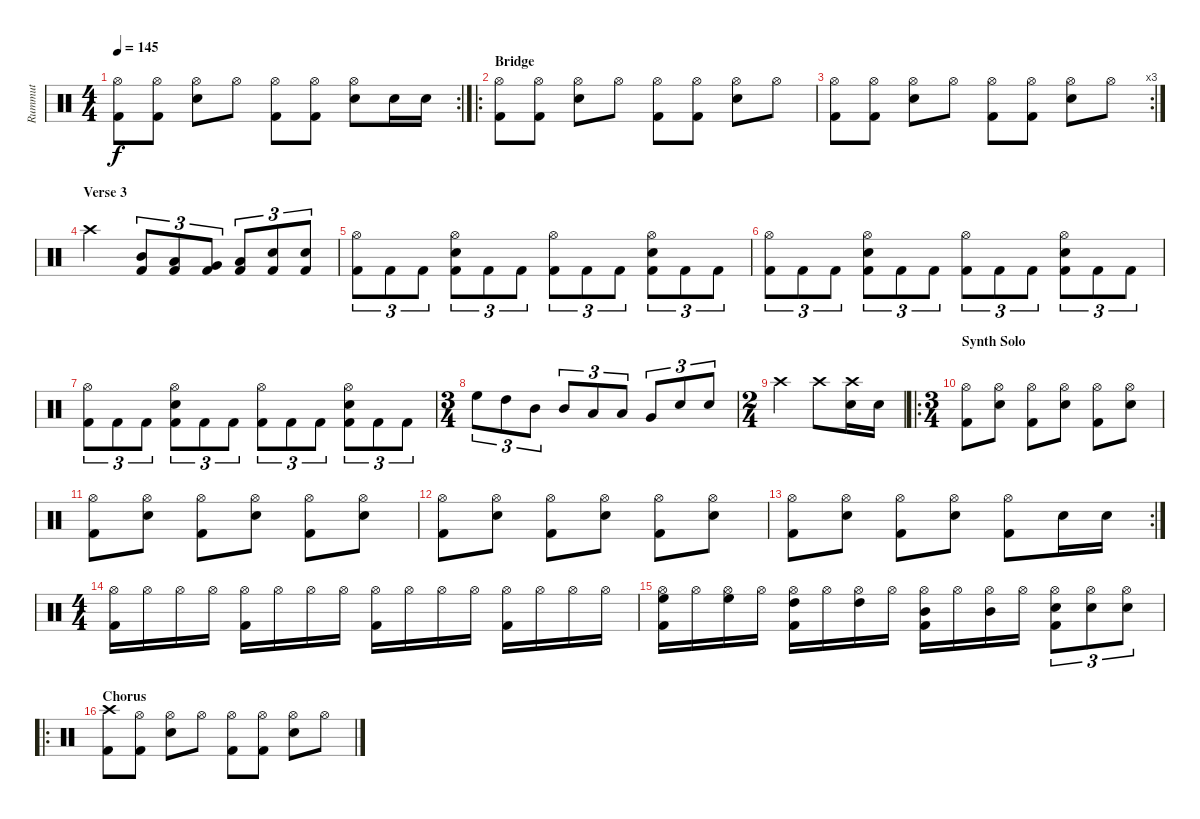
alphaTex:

\track ("Rummut" "Rummut") {instrument percussion}
\staff {score}
\articulation defaults
\rc 2
\ts (4 4)
\tempo 145
\clef neutral
\ks c
("Hi-Hat (open)" "Kick (hit) 2").8{dy f} ("Hi-Hat (open)" "Kick (hit) 2").8 ("Hi-Hat (open)" "Electric Snare (hit)").8 "Hi-Hat (open)".8 ("Hi-Hat (open)" "Kick (hit) 2").8 ("Hi-Hat (open)" "Kick (hit) 2").8 ("Hi-Hat (open)" "Electric Snare (hit)").8 "Electric Snare (hit)".16 "Electric Snare (hit)".16 |
\ro
\section ("" "Bridge")
("Hi-Hat (open)" "Kick (hit) 2").8 ("Hi-Hat (open)" "Kick (hit) 2").8 ("Hi-Hat (open)" "Electric Snare (hit)").8 "Hi-Hat (open)".8 ("Hi-Hat (open)" "Kick (hit) 2").8 ("Hi-Hat (open)" "Kick (hit) 2").8 ("Hi-Hat (open)" "Electric Snare (hit)").8 "Hi-Hat (open)".8 |
\rc 3
("Hi-Hat (open)" "Kick (hit) 2").8 ("Hi-Hat (open)" "Kick (hit) 2").8 ("Hi-Hat (open)" "Electric Snare (hit)").8 "Hi-Hat (open)".8 ("Hi-Hat (open)" "Kick (hit) 2").8 ("Hi-Hat (open)" "Kick (hit) 2").8 ("Hi-Hat (open)" "Electric Snare (hit)").8 "Hi-Hat (open)".8 |
\section ("" "Verse 3")
"Crash high (hit)".2 ("Kick (hit) 2" "Mid Tom (hit)").8{tu (3 2)} ("Kick (hit) 2" "Low Tom (hit)").8{tu (3 2)} ("Kick (hit) 2" "Very Low Tom (hit)").8{tu (3 2)} ("Kick (hit) 2" "Low Floor Tom (hit)").8{tu (3 2)} ("Kick (hit) 2" "Electric Snare (hit)").8{tu (3 2)} ("Kick (hit) 2" "Electric Snare (hit)").8{tu (3 2)} |
("Kick (hit) 2" "Hi-Hat (open)").8{tu (3 2)} "Kick (hit) 2".8{tu (3 2)} "Kick (hit) 2".8{tu (3 2)} ("Kick (hit) 2" "Electric Snare (hit)" "Hi-Hat (open)").8{tu (3 2)} "Kick (hit) 2".8{tu (3 2)} "Kick (hit) 2".8{tu (3 2)} ("Kick (hit) 2" "Hi-Hat (open)").8{tu (3 2)} "Kick (hit) 2".8{tu (3 2)} "Kick (hit) 2".8{tu (3 2)} ("Kick (hit) 2" "Electric Snare (hit)" "Hi-Hat (open)").8{tu (3 2)} "Kick (hit) 2".8{tu (3 2)} "Kick (hit) 2".8{tu (3 2)} |
("Kick (hit) 2" "Hi-Hat (open)").8{tu (3 2)} "Kick (hit) 2".8{tu (3 2)} "Kick (hit) 2".8{tu (3 2)} ("Kick (hit) 2" "Electric Snare (hit)" "Hi-Hat (open)").8{tu (3 2)} "Kick (hit) 2".8{tu (3 2)} "Kick (hit) 2".8{tu (3 2)} ("Kick (hit) 2" "Hi-Hat (open)").8{tu (3 2)} "Kick (hit) 2".8{tu (3 2)} "Kick (hit) 2".8{tu (3 2)} ("Kick (hit) 2" "Electric Snare (hit)" "Hi-Hat (open)").8{tu (3 2)} "Kick (hit) 2".8{tu (3 2)} "Kick (hit) 2".8{tu (3 2)} |
("Kick (hit) 2" "Hi-Hat (open)").8{tu (3 2)} "Kick (hit) 2".8{tu (3 2)} "Kick (hit) 2".8{tu (3 2)} ("Kick (hit) 2" "Electric Snare (hit)" "Hi-Hat (open)").8{tu (3 2)} "Kick (hit) 2".8{tu (3 2)} "Kick (hit) 2".8{tu (3 2)} ("Kick (hit) 2" "Hi-Hat (open)").8{tu (3 2)} "Kick (hit) 2".8{tu (3 2)} "Kick (hit) 2".8{tu (3 2)} ("Kick (hit) 2" "Electric Snare (hit)" "Hi-Hat (open)").8{tu (3 2)} "Kick (hit) 2".8{tu (3 2)} "Kick (hit) 2".8{tu (3 2)} |
\ts (3 4)
"High Floor Tom (hit)".8{tu (3 2)} "High Tom (hit)".8{tu (3 2)} "Mid Tom (hit)".8{tu (3 2)} "Mid Tom (hit)".8{tu (3 2)} "Low Tom (hit)".8{tu (3 2)} "Low Floor Tom (hit)".8{tu (3 2)} "Very Low Tom (hit)".8{tu (3 2)} "Electric Snare (hit)".8{tu (3 2)} "Electric Snare (hit)".8{tu (3 2)} |
\ts (2 4)
"Crash high (hit)".4 "Crash high (hit)".8 ("Crash high (hit)" "Electric Snare (hit)").16 "Electric Snare (hit)".16 |
\ro
\ts (3 4)
\section ("" "Synth Solo")
("Hi-Hat (open)" "Kick (hit) 2").8 ("Hi-Hat (open)" "Electric Snare (hit)").8 ("Hi-Hat (open)" "Kick (hit) 2").8 ("Hi-Hat (open)" "Electric Snare (hit)").8 ("Hi-Hat (open)" "Kick (hit) 2").8 ("Hi-Hat (open)" "Electric Snare (hit)").8 |
("Hi-Hat (open)" "Kick (hit) 2").8 ("Hi-Hat (open)" "Electric Snare (hit)").8 ("Hi-Hat (open)" "Kick (hit) 2").8 ("Hi-Hat (open)" "Electric Snare (hit)").8 ("Hi-Hat (open)" "Kick (hit) 2").8 ("Hi-Hat (open)" "Electric Snare (hit)").8 |
("Hi-Hat (open)" "Kick (hit) 2").8 ("Hi-Hat (open)" "Electric Snare (hit)").8 ("Hi-Hat (open)" "Kick (hit) 2").8 ("Hi-Hat (open)" "Electric Snare (hit)").8 ("Hi-Hat (open)" "Kick (hit) 2").8 ("Hi-Hat (open)" "Electric Snare (hit)").8 |
\rc 2
("Hi-Hat (open)" "Kick (hit) 2").8 ("Hi-Hat (open)" "Electric Snare (hit)").8 ("Hi-Hat (open)" "Kick (hit) 2").8 ("Hi-Hat (open)" "Electric Snare (hit)").8 ("Hi-Hat (open)" "Kick (hit) 2").8 "Electric Snare (hit)".16 "Electric Snare (hit)".16 |
\ts (4 4)
("Hi-Hat (open)" "Kick (hit) 2").16 "Hi-Hat (open)".16 "Hi-Hat (open)".16 "Hi-Hat (open)".16 ("Hi-Hat (open)" "Kick (hit) 2").16 "Hi-Hat (open)".16 "Hi-Hat (open)".16 "Hi-Hat (open)".16 ("Hi-Hat (open)" "Kick (hit) 2").16 "Hi-Hat (open)".16 "Hi-Hat (open)".16 "Hi-Hat (open)".16 ("Hi-Hat (open)" "Kick (hit) 2").16 "Hi-Hat (open)".16 "Hi-Hat (open)".16 "Hi-Hat (open)".16 |
("Hi-Hat (open)" "Kick (hit) 2" "High Floor Tom (hit)").16 "Hi-Hat (open)".16 ("Hi-Hat (open)" "High Floor Tom (hit)").16 "Hi-Hat (open)".16 ("Hi-Hat (open)" "Kick (hit) 2" "High Tom (hit)").16 "Hi-Hat (open)".16 ("Hi-Hat (open)" "High Tom (hit)").16 "Hi-Hat (open)".16 ("Hi-Hat (open)" "Kick (hit) 2" "Mid Tom (hit)").16 "Hi-Hat (open)".16 ("Hi-Hat (open)" "Mid Tom (hit)").16 "Hi-Hat (open)".16 ("Hi-Hat (open)" "Kick (hit) 2" "Electric Snare (hit)").8{tu (3 2)} ("Hi-Hat (open)" "Electric Snare (hit)").8{tu (3 2)} ("Hi-Hat (open)" "Electric Snare (hit)").8{tu (3 2)} |
\ro
\section ("" "Chorus")
("Crash high (hit)" "Kick (hit) 2").8 ("Hi-Hat (open)" "Kick (hit) 2").8 ("Hi-Hat (open)" "Electric Snare (hit)").8 "Hi-Hat (open)".8 ("Hi-Hat (open)" "Kick (hit) 2").8 ("Hi-Hat (open)" "Kick (hit) 2").8 ("Hi-Hat (open)" "Electric Snare (hit)").8 "Hi-Hat (open)".8
